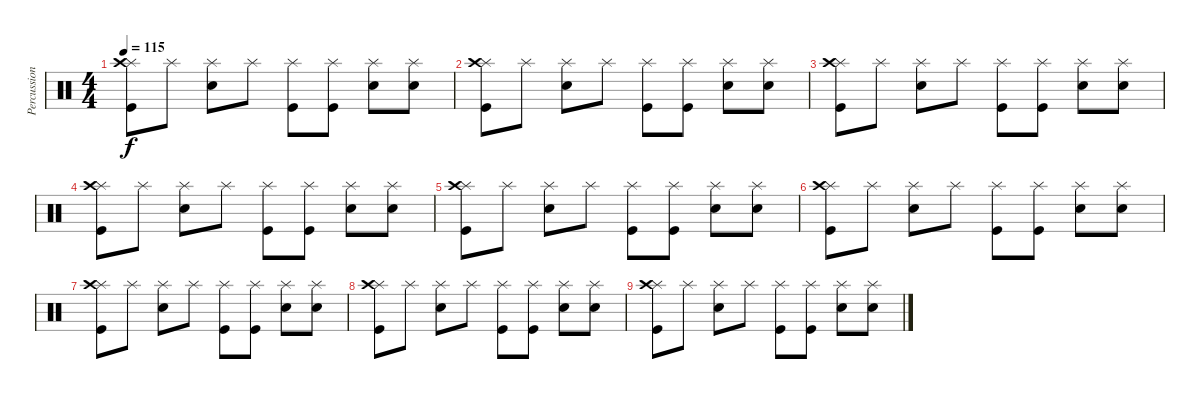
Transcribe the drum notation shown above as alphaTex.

\track ("Percussions" "Percussion") {instrument percussion}
\staff {score}
\articulation defaults
\ts (4 4)
\tempo 115
\clef neutral
\ks c
("Splash (hit)" "Crash high (hit)" "Kick (hit)").8{dy f} "Splash (hit)".8 ("Splash (hit)" "Electric Snare (hit)").8 "Splash (hit)".8 ("Splash (hit)" "Kick (hit)").8 ("Splash (hit)" "Kick (hit)").8 ("Splash (hit)" "Electric Snare (hit)").8 ("Splash (hit)" "Electric Snare (hit)").8 |
("Splash (hit)" "Crash high (hit)" "Kick (hit)").8 "Splash (hit)".8 ("Splash (hit)" "Electric Snare (hit)").8 "Splash (hit)".8 ("Splash (hit)" "Kick (hit)").8 ("Splash (hit)" "Kick (hit)").8 ("Splash (hit)" "Electric Snare (hit)").8 ("Splash (hit)" "Electric Snare (hit)").8 |
("Splash (hit)" "Crash high (hit)" "Kick (hit)").8 "Splash (hit)".8 ("Splash (hit)" "Electric Snare (hit)").8 "Splash (hit)".8 ("Splash (hit)" "Kick (hit)").8 ("Splash (hit)" "Kick (hit)").8 ("Splash (hit)" "Electric Snare (hit)").8 ("Splash (hit)" "Electric Snare (hit)").8 |
("Splash (hit)" "Crash high (hit)" "Kick (hit)").8 "Splash (hit)".8 ("Splash (hit)" "Electric Snare (hit)").8 "Splash (hit)".8 ("Splash (hit)" "Kick (hit)").8 ("Splash (hit)" "Kick (hit)").8 ("Splash (hit)" "Electric Snare (hit)").8 ("Splash (hit)" "Electric Snare (hit)").8 |
("Splash (hit)" "Crash high (hit)" "Kick (hit)").8 "Splash (hit)".8 ("Splash (hit)" "Electric Snare (hit)").8 "Splash (hit)".8 ("Splash (hit)" "Kick (hit)").8 ("Splash (hit)" "Kick (hit)").8 ("Splash (hit)" "Electric Snare (hit)").8 ("Splash (hit)" "Electric Snare (hit)").8 |
("Splash (hit)" "Crash high (hit)" "Kick (hit)").8 "Splash (hit)".8 ("Splash (hit)" "Electric Snare (hit)").8 "Splash (hit)".8 ("Splash (hit)" "Kick (hit)").8 ("Splash (hit)" "Kick (hit)").8 ("Splash (hit)" "Electric Snare (hit)").8 ("Splash (hit)" "Electric Snare (hit)").8 |
("Splash (hit)" "Crash high (hit)" "Kick (hit)").8 "Splash (hit)".8 ("Splash (hit)" "Electric Snare (hit)").8 "Splash (hit)".8 ("Splash (hit)" "Kick (hit)").8 ("Splash (hit)" "Kick (hit)").8 ("Splash (hit)" "Electric Snare (hit)").8 ("Splash (hit)" "Electric Snare (hit)").8 |
("Splash (hit)" "Crash high (hit)" "Kick (hit)").8 "Splash (hit)".8 ("Splash (hit)" "Electric Snare (hit)").8 "Splash (hit)".8 ("Splash (hit)" "Kick (hit)").8 ("Splash (hit)" "Kick (hit)").8 ("Splash (hit)" "Electric Snare (hit)").8 ("Splash (hit)" "Electric Snare (hit)").8 |
("Splash (hit)" "Crash high (hit)" "Kick (hit)").8 "Splash (hit)".8 ("Splash (hit)" "Electric Snare (hit)").8 "Splash (hit)".8 ("Splash (hit)" "Kick (hit)").8 ("Splash (hit)" "Kick (hit)").8 ("Splash (hit)" "Electric Snare (hit)").8 ("Splash (hit)" "Electric Snare (hit)").8
